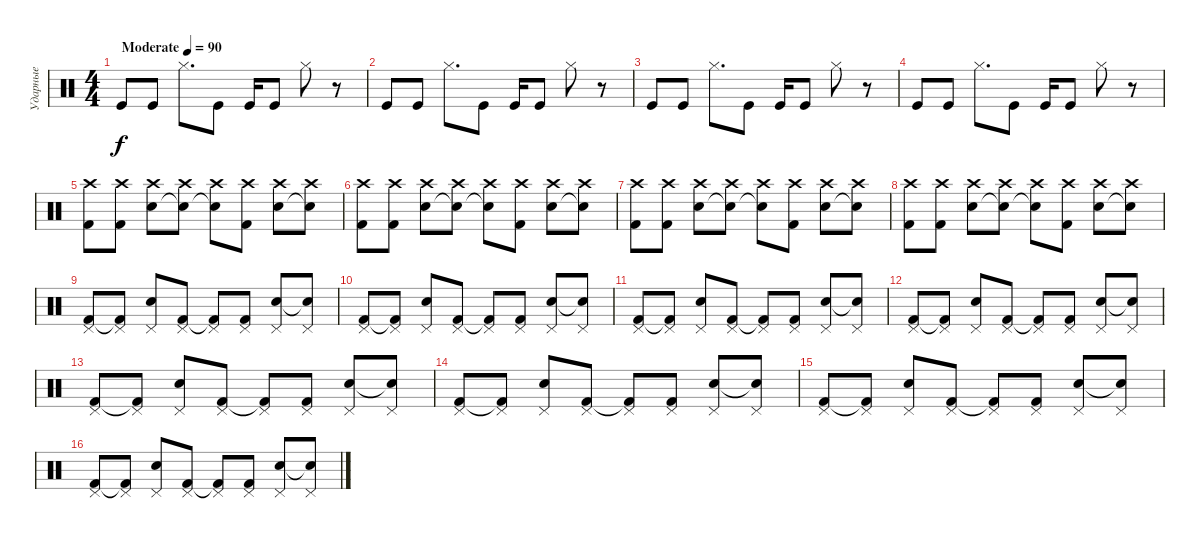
\track ("Ударные" "Ударные") {instrument percussion}
\staff {score}
\articulation defaults
\ts (4 4)
\tempo (90 "Moderate")
\clef neutral
\ks c "Kick (hit)".8{dy f} "Kick (hit)".8 "Hi-Hat (closed)".8{d} "Kick (hit)".8 "Kick (hit)".16 "Kick (hit)".8 "Hi-Hat (closed)".8
r.8 |
"Kick (hit)".8 "Kick (hit)".8 "Hi-Hat (closed)".8{d} "Kick (hit)".8 "Kick (hit)".16 "Kick (hit)".8 "Hi-Hat (closed)".8 r.8 |
"Kick (hit)".8 "Kick (hit)".8 "Hi-Hat (closed)".8{d} "Kick (hit)".8 "Kick (hit)".16 "Kick (hit)".8 "Hi-Hat (closed)".8 r.8 |
"Kick (hit)".8 "Kick (hit)".8 "Hi-Hat (closed)".8{d} "Kick (hit)".8 "Kick (hit)".16 "Kick (hit)".8 "Hi-Hat (closed)".8 r.8 |
("Kick (hit) 2" "Crash high (hit)").8 ("Kick (hit) 2" "Crash high (hit)").8 ("Electric Snare (hit)" "Crash high (hit)").8 ("Electric Snare (hit)"{t} "Crash high (hit)").8 ("Electric Snare (hit)"{t} "Crash high (hit)").8 ("Kick (hit) 2" "Crash high (hit)").8 ("Electric Snare (hit)" "Crash high (hit)").8 ("Electric Snare (hit)"{t} "Crash high (hit)").8 |
("Kick (hit) 2" "Crash high (hit)").8 ("Kick (hit) 2" "Crash high (hit)").8 ("Electric Snare (hit)" "Crash high (hit)").8 ("Electric Snare (hit)"{t} "Crash high (hit)").8 ("Electric Snare (hit)"{t} "Crash high (hit)").8 ("Kick (hit) 2" "Crash high (hit)").8 ("Electric Snare (hit)" "Crash high (hit)").8 ("Electric Snare (hit)"{t} "Crash high (hit)").8 |
("Kick (hit) 2" "Crash high (hit)").8 ("Kick (hit) 2" "Crash high (hit)").8 ("Electric Snare (hit)" "Crash high (hit)").8 ("Electric Snare (hit)"{t} "Crash high (hit)").8 ("Electric Snare (hit)"{t} "Crash high (hit)").8 ("Kick (hit) 2" "Crash high (hit)").8 ("Electric Snare (hit)" "Crash high (hit)").8 ("Electric Snare (hit)"{t} "Crash high (hit)").8 |
("Kick (hit) 2" "Crash high (hit)").8 ("Kick (hit) 2" "Crash high (hit)").8 ("Electric Snare (hit)" "Crash high (hit)").8 ("Electric Snare (hit)"{t} "Crash high (hit)").8 ("Electric Snare (hit)"{t} "Crash high (hit)").8 ("Kick (hit) 2" "Crash high (hit)").8 ("Electric Snare (hit)" "Crash high (hit)").8 ("Electric Snare (hit)"{t} "Crash high (hit)").8 |
("Kick (hit) 2" "Pedal Hi-Hat (hit)").8 ("Kick (hit) 2"{t} "Pedal Hi-Hat (hit)").8 ("Snare (hit) 2" "Pedal Hi-Hat (hit)").8 ("Kick (hit) 2" "Pedal Hi-Hat (hit)").8 ("Kick (hit) 2"{t} "Pedal Hi-Hat (hit)").8 ("Kick (hit) 2" "Pedal Hi-Hat (hit)").8 ("Snare (hit) 2" "Pedal Hi-Hat (hit)").8 ("Snare (hit) 2"{t} "Pedal Hi-Hat (hit)").8 |
("Kick (hit) 2" "Pedal Hi-Hat (hit)").8 ("Kick (hit) 2"{t} "Pedal Hi-Hat (hit)").8 ("Snare (hit) 2" "Pedal Hi-Hat (hit)").8 ("Kick (hit) 2" "Pedal Hi-Hat (hit)").8 ("Kick (hit) 2"{t} "Pedal Hi-Hat (hit)").8 ("Kick (hit) 2" "Pedal Hi-Hat (hit)").8 ("Snare (hit) 2" "Pedal Hi-Hat (hit)").8 ("Snare (hit) 2"{t} "Pedal Hi-Hat (hit)").8 |
("Kick (hit) 2" "Pedal Hi-Hat (hit)").8 ("Kick (hit) 2"{t} "Pedal Hi-Hat (hit)").8 ("Snare (hit) 2" "Pedal Hi-Hat (hit)").8 ("Kick (hit) 2" "Pedal Hi-Hat (hit)").8 ("Kick (hit) 2"{t} "Pedal Hi-Hat (hit)").8 ("Kick (hit) 2" "Pedal Hi-Hat (hit)").8 ("Snare (hit) 2" "Pedal Hi-Hat (hit)").8 ("Snare (hit) 2"{t} "Pedal Hi-Hat (hit)").8 |
("Kick (hit) 2" "Pedal Hi-Hat (hit)").8 ("Kick (hit) 2"{t} "Pedal Hi-Hat (hit)").8 ("Snare (hit) 2" "Pedal Hi-Hat (hit)").8 ("Kick (hit) 2" "Pedal Hi-Hat (hit)").8 ("Kick (hit) 2"{t} "Pedal Hi-Hat (hit)").8 ("Kick (hit) 2" "Pedal Hi-Hat (hit)").8 ("Snare (hit) 2" "Pedal Hi-Hat (hit)").8 ("Snare (hit) 2"{t} "Pedal Hi-Hat (hit)").8 |
("Kick (hit) 2" "Pedal Hi-Hat (hit)").8 ("Kick (hit) 2"{t} "Pedal Hi-Hat (hit)").8 ("Snare (hit) 2" "Pedal Hi-Hat (hit)").8 ("Kick (hit) 2" "Pedal Hi-Hat (hit)").8 ("Kick (hit) 2"{t} "Pedal Hi-Hat (hit)").8 ("Kick (hit) 2" "Pedal Hi-Hat (hit)").8 ("Snare (hit) 2" "Pedal Hi-Hat (hit)").8 ("Snare (hit) 2"{t} "Pedal Hi-Hat (hit)").8 |
("Kick (hit) 2" "Pedal Hi-Hat (hit)").8 ("Kick (hit) 2"{t} "Pedal Hi-Hat (hit)").8 ("Snare (hit) 2" "Pedal Hi-Hat (hit)").8 ("Kick (hit) 2" "Pedal Hi-Hat (hit)").8 ("Kick (hit) 2"{t} "Pedal Hi-Hat (hit)").8 ("Kick (hit) 2" "Pedal Hi-Hat (hit)").8 ("Snare (hit) 2" "Pedal Hi-Hat (hit)").8 ("Snare (hit) 2"{t} "Pedal Hi-Hat (hit)").8 |
("Kick (hit) 2" "Pedal Hi-Hat (hit)").8 ("Kick (hit) 2"{t} "Pedal Hi-Hat (hit)").8 ("Snare (hit) 2" "Pedal Hi-Hat (hit)").8 ("Kick (hit) 2" "Pedal Hi-Hat (hit)").8 ("Kick (hit) 2"{t} "Pedal Hi-Hat (hit)").8 ("Kick (hit) 2" "Pedal Hi-Hat (hit)").8 ("Snare (hit) 2" "Pedal Hi-Hat (hit)").8 ("Snare (hit) 2"{t} "Pedal Hi-Hat (hit)").8 |
("Kick (hit) 2" "Pedal Hi-Hat (hit)").8 ("Kick (hit) 2"{t} "Pedal Hi-Hat (hit)").8 ("Snare (hit) 2" "Pedal Hi-Hat (hit)").8 ("Kick (hit) 2" "Pedal Hi-Hat (hit)").8 ("Kick (hit) 2"{t} "Pedal Hi-Hat (hit)").8 ("Kick (hit) 2" "Pedal Hi-Hat (hit)").8 ("Snare (hit) 2" "Pedal Hi-Hat (hit)").8 ("Snare (hit) 2"{t} "Pedal Hi-Hat (hit)").8
